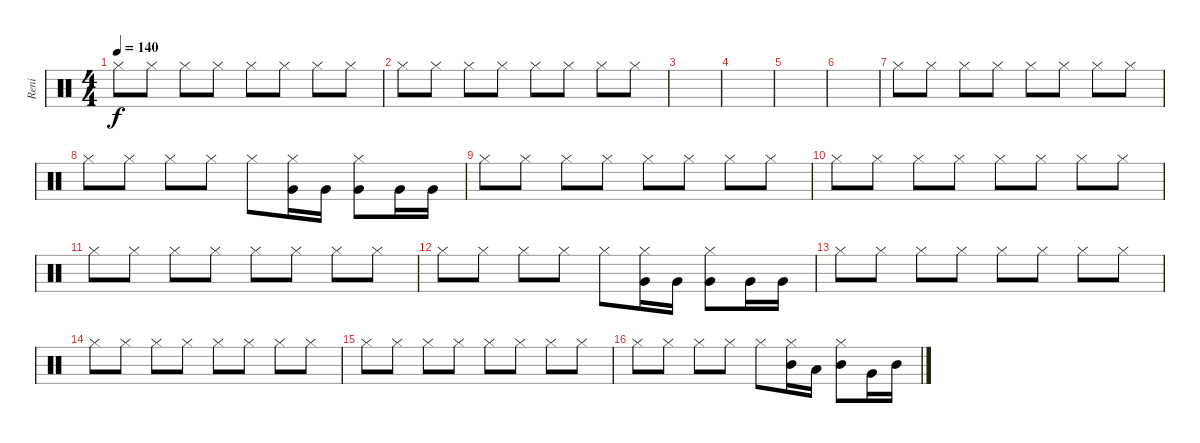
\track ("Reni" "Reni") {instrument percussion}
\staff {score}
\articulation defaults
\ts (4 4)
\tempo 140
\clef neutral
\ks c "Hi-Hat (closed)".8{dy f} "Hi-Hat (closed)".8 "Hi-Hat (closed)".8 "Hi-Hat (closed)".8 "Hi-Hat (closed)".8 "Hi-Hat (closed)".8 "Hi-Hat (closed)".8 "Hi-Hat (closed)".8
|
"Hi-Hat (closed)".8 "Hi-Hat (closed)".8 "Hi-Hat (closed)".8 "Hi-Hat (closed)".8 "Hi-Hat (closed)".8 "Hi-Hat (closed)".8 "Hi-Hat (closed)".8 "Hi-Hat (closed)".8 |
|
|
|
|
"Hi-Hat (closed)".8 "Hi-Hat (closed)".8 "Hi-Hat (closed)".8 "Hi-Hat (closed)".8 "Hi-Hat (closed)".8 "Hi-Hat (closed)".8 "Hi-Hat (closed)".8 "Hi-Hat (closed)".8 |
"Hi-Hat (closed)".8 "Hi-Hat (closed)".8 "Hi-Hat (closed)".8 "Hi-Hat (closed)".8 "Hi-Hat (closed)".8 ("Hi-Hat (closed)" "Very Low Tom (hit)").16 "Very Low Tom (hit)".16 ("Hi-Hat (closed)" "Very Low Tom (hit)").8 "Very Low Tom (hit)".16 "Very Low Tom (hit)".16 |
"Hi-Hat (closed)".8 "Hi-Hat (closed)".8 "Hi-Hat (closed)".8 "Hi-Hat (closed)".8 "Hi-Hat (closed)".8 "Hi-Hat (closed)".8 "Hi-Hat (closed)".8 "Hi-Hat (closed)".8 |
"Hi-Hat (closed)".8 "Hi-Hat (closed)".8 "Hi-Hat (closed)".8 "Hi-Hat (closed)".8 "Hi-Hat (closed)".8 "Hi-Hat (closed)".8 "Hi-Hat (closed)".8 "Hi-Hat (closed)".8 |
"Hi-Hat (closed)".8 "Hi-Hat (closed)".8 "Hi-Hat (closed)".8 "Hi-Hat (closed)".8 "Hi-Hat (closed)".8 "Hi-Hat (closed)".8 "Hi-Hat (closed)".8 "Hi-Hat (closed)".8 |
"Hi-Hat (closed)".8 "Hi-Hat (closed)".8 "Hi-Hat (closed)".8 "Hi-Hat (closed)".8 "Hi-Hat (closed)".8 ("Hi-Hat (closed)" "Very Low Tom (hit)").16 "Very Low Tom (hit)".16 ("Hi-Hat (closed)" "Very Low Tom (hit)").8 "Very Low Tom (hit)".16 "Very Low Tom (hit)".16 |
"Hi-Hat (closed)".8 "Hi-Hat (closed)".8 "Hi-Hat (closed)".8 "Hi-Hat (closed)".8 "Hi-Hat (closed)".8 "Hi-Hat (closed)".8 "Hi-Hat (closed)".8 "Hi-Hat (closed)".8 |
"Hi-Hat (closed)".8 "Hi-Hat (closed)".8 "Hi-Hat (closed)".8 "Hi-Hat (closed)".8 "Hi-Hat (closed)".8 "Hi-Hat (closed)".8 "Hi-Hat (closed)".8 "Hi-Hat (closed)".8 |
"Hi-Hat (closed)".8 "Hi-Hat (closed)".8 "Hi-Hat (closed)".8 "Hi-Hat (closed)".8 "Hi-Hat (closed)".8 "Hi-Hat (closed)".8 "Hi-Hat (closed)".8 "Hi-Hat (closed)".8 |
"Hi-Hat (closed)".8 "Hi-Hat (closed)".8 "Hi-Hat (closed)".8 "Hi-Hat (closed)".8 "Hi-Hat (closed)".8 ("Hi-Hat (closed)" "Mid Tom (hit)").16 "Low Tom (hit)".16 ("Hi-Hat (closed)" "Mid Tom (hit)").8 "Very Low Tom (hit)".16 "Mid Tom (hit)".16
